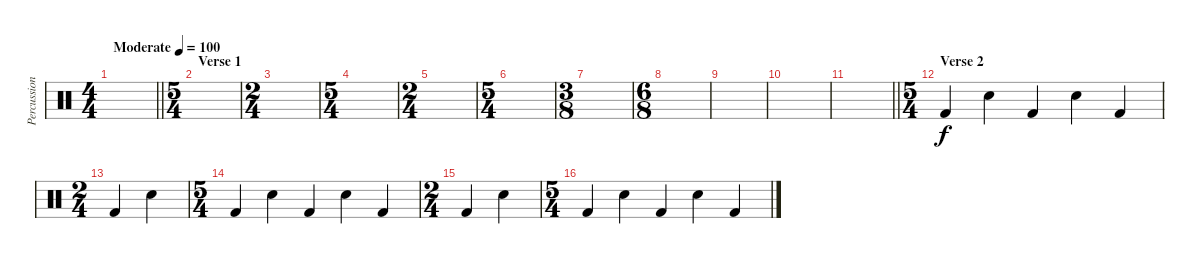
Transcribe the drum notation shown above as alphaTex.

\track ("Percussion" "Percussion") {instrument percussion}
\staff {score}
\articulation defaults
\ts (4 4)
\tempo (100 "Moderate")
\clef neutral
\barLineRight lightlight
\ks c
|
\ts (5 4)
\section ("" "Verse 1")
|
\ts (2 4)
|
\ts (5 4)
|
\ts (2 4)
|
\ts (5 4)
|
\ts (3 8)
|
\ts (6 8)
|
|
|
\barLineRight lightlight
|
\ts (5 4)
\section ("" "Verse 2")
"Kick (hit) 2".4 "Snare (hit) 2".4 "Kick (hit) 2".4 "Snare (hit) 2".4 "Kick (hit) 2".4 |
\ts (2 4)
"Kick (hit) 2".4 "Snare (hit) 2".4 |
\ts (5 4)
"Kick (hit) 2".4 "Snare (hit) 2".4 "Kick (hit) 2".4 "Snare (hit) 2".4 "Kick (hit) 2".4 |
\ts (2 4)
"Kick (hit) 2".4 "Snare (hit) 2".4 |
\ts (5 4)
"Kick (hit) 2".4 "Snare (hit) 2".4 "Kick (hit) 2".4 "Snare (hit) 2".4 "Kick (hit) 2".4
